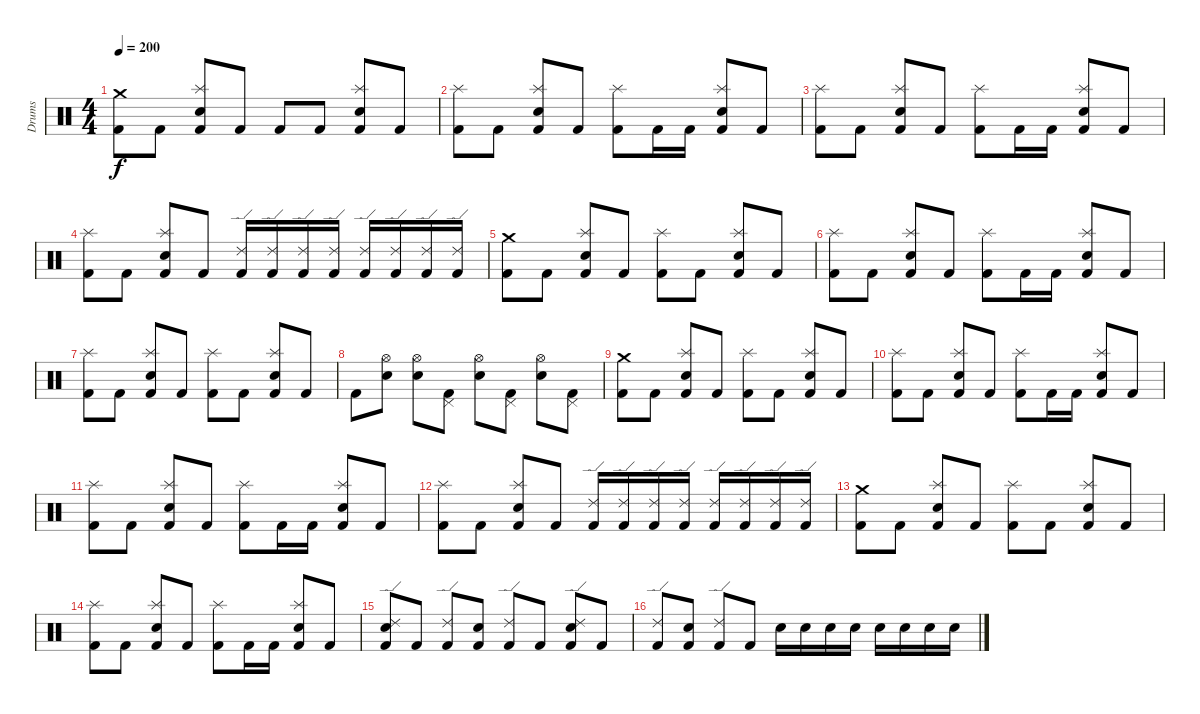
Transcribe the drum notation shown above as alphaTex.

\track ("Drums" "Drums") {instrument percussion}
\staff {score}
\articulation defaults
\ts (4 4)
\tempo 200
\clef neutral
\ks c
("Crash medium (hit)" "Kick (hit) 2").8{dy f} "Kick (hit) 2".8 ("Splash (hit)" "Snare (hit) 2" "Kick (hit) 2").8 "Kick (hit) 2".8 "Kick (hit) 2".8 "Kick (hit) 2".8 ("Splash (hit)" "Snare (hit) 2" "Kick (hit) 2").8 "Kick (hit) 2".8 |
("Splash (hit)" "Kick (hit) 2").8 "Kick (hit) 2".8 ("Splash (hit)" "Snare (hit) 2" "Kick (hit) 2").8 "Kick (hit) 2".8 ("Splash (hit)" "Kick (hit) 2").8 "Kick (hit) 2".16 "Kick (hit) 2".16 ("Splash (hit)" "Snare (hit) 2" "Kick (hit) 2").8 "Kick (hit) 2".8 |
("Splash (hit)" "Kick (hit) 2").8 "Kick (hit) 2".8 ("Splash (hit)" "Snare (hit) 2" "Kick (hit) 2").8 "Kick (hit) 2".8 ("Splash (hit)" "Kick (hit) 2").8 "Kick (hit) 2".16 "Kick (hit) 2".16 ("Splash (hit)" "Snare (hit) 2" "Kick (hit) 2").8 "Kick (hit) 2".8 |
("Splash (hit)" "Kick (hit) 2").8 "Kick (hit) 2".8 ("Splash (hit)" "Snare (hit) 2" "Kick (hit) 2").8 "Kick (hit) 2".8 ("Ride (edge) 2" "Kick (hit) 2").16 ("Ride (edge) 2" "Kick (hit) 2").16 ("Ride (edge) 2" "Kick (hit) 2").16 ("Ride (edge) 2" "Kick (hit) 2").16 ("Ride (edge) 2" "Kick (hit) 2").16 ("Ride (edge) 2" "Kick (hit) 2").16 ("Ride (edge) 2" "Kick (hit) 2").16 ("Ride (edge) 2" "Kick (hit) 2").16 |
("Crash medium (hit)" "Kick (hit) 2").8 "Kick (hit) 2".8 ("Splash (hit)" "Snare (hit) 2" "Kick (hit) 2").8 "Kick (hit) 2".8 ("Splash (hit)" "Kick (hit) 2").8 "Kick (hit) 2".8 ("Splash (hit)" "Snare (hit) 2" "Kick (hit) 2").8 "Kick (hit) 2".8 |
("Splash (hit)" "Kick (hit) 2").8 "Kick (hit) 2".8 ("Splash (hit)" "Snare (hit) 2" "Kick (hit) 2").8 "Kick (hit) 2".8 ("Splash (hit)" "Kick (hit) 2").8 "Kick (hit) 2".16 "Kick (hit) 2".16 ("Splash (hit)" "Snare (hit) 2" "Kick (hit) 2").8 "Kick (hit) 2".8 |
("Splash (hit)" "Kick (hit) 2").8 "Kick (hit) 2".8 ("Splash (hit)" "Snare (hit) 2" "Kick (hit) 2").8 "Kick (hit) 2".8 ("Splash (hit)" "Kick (hit) 2").8 "Kick (hit) 2".8 ("Splash (hit)" "Snare (hit) 2" "Kick (hit) 2").8 "Kick (hit) 2".8 |
"Kick (hit) 2".8 ("Snare (hit) 2" "Hi-Hat (open)").8 ("Snare (hit) 2" "Hi-Hat (open)").8 ("Pedal Hi-Hat (hit)" "Kick (hit) 2").8 ("Snare (hit) 2" "Hi-Hat (open)").8 ("Pedal Hi-Hat (hit)" "Kick (hit) 2").8 ("Snare (hit) 2" "Hi-Hat (open)").8 ("Pedal Hi-Hat (hit)" "Kick (hit) 2").8 |
("Crash medium (hit)" "Kick (hit) 2").8 "Kick (hit) 2".8 ("Splash (hit)" "Snare (hit) 2" "Kick (hit) 2").8 "Kick (hit) 2".8 ("Splash (hit)" "Kick (hit) 2").8 "Kick (hit) 2".8 ("Splash (hit)" "Snare (hit) 2" "Kick (hit) 2").8 "Kick (hit) 2".8 |
("Splash (hit)" "Kick (hit) 2").8 "Kick (hit) 2".8 ("Splash (hit)" "Snare (hit) 2" "Kick (hit) 2").8 "Kick (hit) 2".8 ("Splash (hit)" "Kick (hit) 2").8 "Kick (hit) 2".16 "Kick (hit) 2".16 ("Splash (hit)" "Snare (hit) 2" "Kick (hit) 2").8 "Kick (hit) 2".8 |
("Splash (hit)" "Kick (hit) 2").8 "Kick (hit) 2".8 ("Splash (hit)" "Snare (hit) 2" "Kick (hit) 2").8 "Kick (hit) 2".8 ("Splash (hit)" "Kick (hit) 2").8 "Kick (hit) 2".16 "Kick (hit) 2".16 ("Splash (hit)" "Snare (hit) 2" "Kick (hit) 2").8 "Kick (hit) 2".8 |
("Splash (hit)" "Kick (hit) 2").8 "Kick (hit) 2".8 ("Splash (hit)" "Snare (hit) 2" "Kick (hit) 2").8 "Kick (hit) 2".8 ("Ride (edge) 2" "Kick (hit) 2").16 ("Ride (edge) 2" "Kick (hit) 2").16 ("Ride (edge) 2" "Kick (hit) 2").16 ("Ride (edge) 2" "Kick (hit) 2").16 ("Ride (edge) 2" "Kick (hit) 2").16 ("Ride (edge) 2" "Kick (hit) 2").16 ("Ride (edge) 2" "Kick (hit) 2").16 ("Ride (edge) 2" "Kick (hit) 2").16 |
("Crash medium (hit)" "Kick (hit) 2").8 "Kick (hit) 2".8 ("Splash (hit)" "Snare (hit) 2" "Kick (hit) 2").8 "Kick (hit) 2".8 ("Splash (hit)" "Kick (hit) 2").8 "Kick (hit) 2".8 ("Splash (hit)" "Snare (hit) 2" "Kick (hit) 2").8 "Kick (hit) 2".8 |
("Splash (hit)" "Kick (hit) 2").8 "Kick (hit) 2".8 ("Splash (hit)" "Snare (hit) 2" "Kick (hit) 2").8 "Kick (hit) 2".8 ("Splash (hit)" "Kick (hit) 2").8 "Kick (hit) 2".16 "Kick (hit) 2".16 ("Splash (hit)" "Snare (hit) 2" "Kick (hit) 2").8 "Kick (hit) 2".8 |
("Ride (edge) 2" "Snare (hit) 2" "Kick (hit) 2").8 "Kick (hit) 2".8 ("Ride (edge) 2" "Kick (hit) 2").8 ("Snare (hit) 2" "Kick (hit) 2").8 ("Ride (edge) 2" "Kick (hit) 2").8 "Kick (hit) 2".8 ("Ride (edge) 2" "Snare (hit) 2" "Kick (hit) 2").8 "Kick (hit) 2".8 |
("Ride (edge) 2" "Kick (hit) 2").8 ("Snare (hit) 2" "Kick (hit) 2").8 ("Ride (edge) 2" "Kick (hit) 2").8 "Kick (hit) 2".8 "Snare (hit) 2".16 "Snare (hit) 2".16 "Snare (hit) 2".16 "Snare (hit) 2".16 "Snare (hit) 2".16 "Snare (hit) 2".16 "Snare (hit) 2".16 "Snare (hit) 2".16
